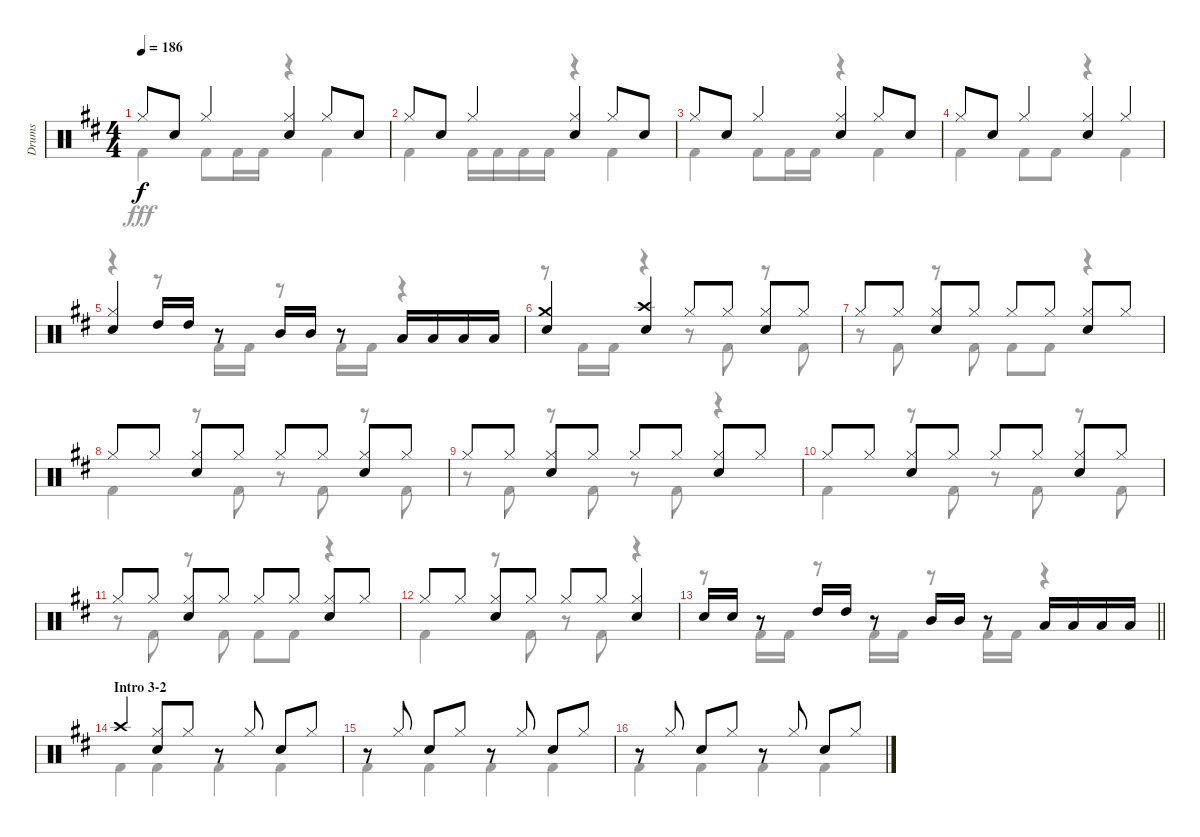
\track ("Drums" "Drums") {instrument percussion}
\staff {score}
\articulation defaults
\voice
\ts (4 4)
\tempo 186
\clef neutral
\ks d "Hi-Hat (closed)".8{dy f} "Snare (hit) 2".8 "Hi-Hat (closed)".4
("Hi-Hat (closed)" "Snare (hit) 2").4 "Hi-Hat (closed)".8 "Snare (hit) 2".8 |
"Hi-Hat (closed)".8 "Snare (hit) 2".8 "Hi-Hat (closed)".4 ("Hi-Hat (closed)" "Snare (hit) 2").4 "Hi-Hat (closed)".8 "Snare (hit) 2".8 |
"Hi-Hat (closed)".8 "Snare (hit) 2".8 "Hi-Hat (closed)".4 ("Hi-Hat (closed)" "Snare (hit) 2").4 "Hi-Hat (closed)".8 "Snare (hit) 2".8 |
"Hi-Hat (closed)".8 "Snare (hit) 2".8 "Hi-Hat (closed)".4 ("Hi-Hat (closed)" "Snare (hit) 2").4 "Hi-Hat (closed)".4 |
("Hi-Hat (closed)" "Snare (hit) 2").4 "High Tom (hit)".16 "High Tom (hit)".16 r.8 "Mid Tom (hit)".16 "Mid Tom (hit)".16 r.8 "Low Tom (hit)".16 "Low Tom (hit)".16 "Low Tom (hit)".16 "Low Tom (hit)".16 |
("Crash medium (hit)" "Snare (hit) 2").4 ("Crash high (hit)" "Snare (hit) 2").4 "Hi-Hat (closed)".8 "Hi-Hat (closed)".8 ("Hi-Hat (closed)" "Snare (hit) 2").8 "Hi-Hat (closed)".8 |
"Hi-Hat (closed)".8 "Hi-Hat (closed)".8 ("Hi-Hat (closed)" "Snare (hit) 2").8 "Hi-Hat (closed)".8 "Hi-Hat (closed)".8 "Hi-Hat (closed)".8 ("Hi-Hat (closed)" "Snare (hit) 2").8 "Hi-Hat (closed)".8 |
"Hi-Hat (closed)".8 "Hi-Hat (closed)".8 ("Hi-Hat (closed)" "Snare (hit) 2").8 "Hi-Hat (closed)".8 "Hi-Hat (closed)".8 "Hi-Hat (closed)".8 ("Hi-Hat (closed)" "Snare (hit) 2").8 "Hi-Hat (closed)".8 |
"Hi-Hat (closed)".8 "Hi-Hat (closed)".8 ("Hi-Hat (closed)" "Snare (hit) 2").8 "Hi-Hat (closed)".8 "Hi-Hat (closed)".8 "Hi-Hat (closed)".8 ("Hi-Hat (closed)" "Snare (hit) 2").8 "Hi-Hat (closed)".8 |
"Hi-Hat (closed)".8 "Hi-Hat (closed)".8 ("Hi-Hat (closed)" "Snare (hit) 2").8 "Hi-Hat (closed)".8 "Hi-Hat (closed)".8 "Hi-Hat (closed)".8 ("Hi-Hat (closed)" "Snare (hit) 2").8 "Hi-Hat (closed)".8 |
"Hi-Hat (closed)".8 "Hi-Hat (closed)".8 ("Hi-Hat (closed)" "Snare (hit) 2").8 "Hi-Hat (closed)".8 "Hi-Hat (closed)".8 "Hi-Hat (closed)".8 ("Hi-Hat (closed)" "Snare (hit) 2").8 "Hi-Hat (closed)".8 |
"Hi-Hat (closed)".8 "Hi-Hat (closed)".8 ("Hi-Hat (closed)" "Snare (hit) 2").8 "Hi-Hat (closed)".8 "Hi-Hat (closed)".8 "Hi-Hat (closed)".8 ("Hi-Hat (closed)" "Snare (hit) 2").4 |
\barLineRight lightlight "Snare (hit) 2".16 "Snare (hit) 2".16
r.8 "High Tom (hit)".16 "High Tom (hit)".16 r.8 "Mid Tom (hit)".16 "Mid Tom (hit)".16 r.8 "Low Tom (hit)".16 "Low Tom (hit)".16 "Low Tom (hit)".16 "Low Tom (hit)".16 |
\section ("" "Intro 3-2")
"Crash high (hit)".4 ("Hi-Hat (closed)" "Snare (hit) 2").8 "Hi-Hat (closed)".8 r.8 "Hi-Hat (closed)".8 "Snare (hit) 2".8 "Hi-Hat (closed)".8 |
r.8 "Hi-Hat (closed)".8 "Snare (hit) 2".8 "Hi-Hat (closed)".8 r.8 "Hi-Hat (closed)".8 "Snare (hit) 2".8 "Hi-Hat (closed)".8 |
r.8 "Hi-Hat (closed)".8 "Snare (hit) 2".8 "Hi-Hat (closed)".8 r.8 "Hi-Hat (closed)".8 "Snare (hit) 2".8 "Hi-Hat (closed)".8
\voice
\clef neutral
\ottava regular
\simile none
\ks d "Kick (hit) 2".4{dy fff} "Kick (hit) 2".8 "Kick (hit) 2".16 "Kick (hit) 2".16
r.4 "Kick (hit) 2".4 |
"Kick (hit) 2".4 "Kick (hit) 2".16 "Kick (hit) 2".16 "Kick (hit) 2".16 "Kick (hit) 2".16 r.4 "Kick (hit) 2".4 |
"Kick (hit) 2".4 "Kick (hit) 2".8 "Kick (hit) 2".16 "Kick (hit) 2".16 r.4 "Kick (hit) 2".4 |
"Kick (hit) 2".4 "Kick (hit) 2".8 "Kick (hit) 2".8 r.4 "Kick (hit) 2".4 |
r.4 r.8 "Kick (hit) 2".16 "Kick (hit) 2".16 r.8 "Kick (hit) 2".16 "Kick (hit) 2".16 r.4 |
r.8 "Kick (hit) 2".16 "Kick (hit) 2".16 r.4 r.8 "Kick (hit) 2".8 r.8 "Kick (hit) 2".8 |
r.8 "Kick (hit) 2".8 r.8 "Kick (hit) 2".8 "Kick (hit) 2".8 "Kick (hit) 2".8 r.4 |
"Kick (hit) 2".4 r.8 "Kick (hit) 2".8 r.8 "Kick (hit) 2".8 r.8 "Kick (hit) 2".8 |
r.8 "Kick (hit) 2".8 r.8 "Kick (hit) 2".8 r.8 "Kick (hit) 2".8 r.4 |
"Kick (hit) 2".4 r.8 "Kick (hit) 2".8 r.8 "Kick (hit) 2".8 r.8 "Kick (hit) 2".8 |
r.8 "Kick (hit) 2".8 r.8 "Kick (hit) 2".8 "Kick (hit) 2".8 "Kick (hit) 2".8 r.4 |
"Kick (hit) 2".4 r.8 "Kick (hit) 2".8 r.8 "Kick (hit) 2".8 r.4 |
\barLineRight lightlight
r.8 "Kick (hit) 2".16 "Kick (hit) 2".16 r.8 "Kick (hit) 2".16 "Kick (hit) 2".16 r.8 "Kick (hit) 2".16 "Kick (hit) 2".16 r.4 |
"Kick (hit) 2".4 "Kick (hit) 2".4 "Kick (hit) 2".4 "Kick (hit) 2".4 |
"Kick (hit) 2".4 "Kick (hit) 2".4 "Kick (hit) 2".4 "Kick (hit) 2".4 |
"Kick (hit) 2".4 "Kick (hit) 2".4 "Kick (hit) 2".4 "Kick (hit) 2".4
